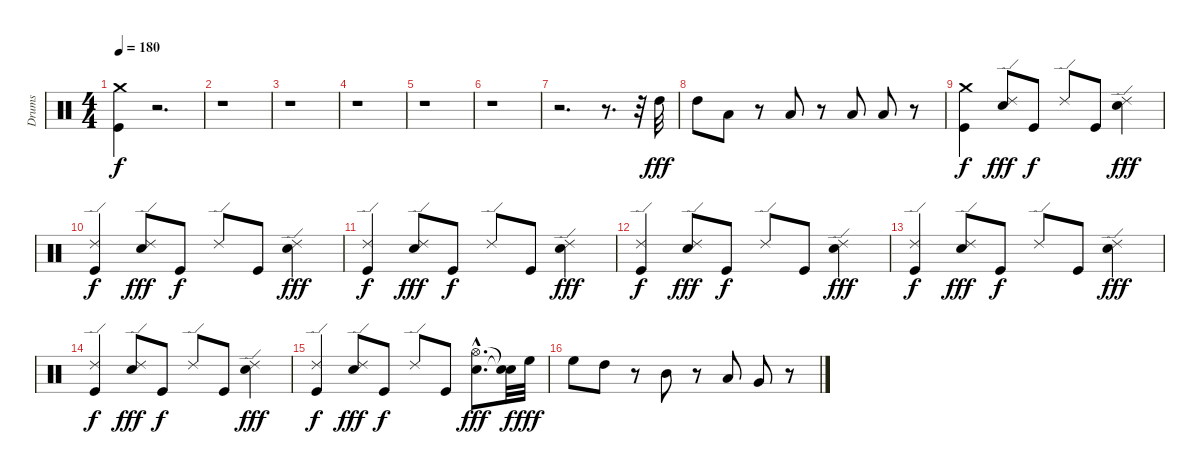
\track ("Drums" "Drums") {instrument percussion}
\staff {score}
\articulation defaults
\ts (4 4)
\tempo 180
\clef neutral
\ks c
("Crash medium (hit)" "Kick (hit)").4{dy f} r.2{d} |
r.1 |
r.1 |
r.1 |
r.1 |
r.1 |
r.2{d} r.8{d} r.32 "High Tom (hit)".32{dy fff} |
"High Tom (hit)".8 "Low Tom (hit)".8 r.8 "Low Tom (hit)".8 r.8 "Low Tom (hit)".8 "Low Tom (hit)".8 r.8 |
("Crash medium (hit)" "Kick (hit)").4{dy f} ("Ride (edge) 2" "Snare (hit) 2").8{dy fff} "Kick (hit)".8{dy f} "Ride (edge) 2".8 "Kick (hit)".8 ("Snare (hit) 2" "Ride (edge) 2").4{dy fff} |
("Ride (edge) 2" "Kick (hit)").4{dy f} ("Ride (edge) 2" "Snare (hit) 2").8{dy fff} "Kick (hit)".8{dy f} "Ride (edge) 2".8 "Kick (hit)".8 ("Snare (hit) 2" "Ride (edge) 2").4{dy fff} |
("Ride (edge) 2" "Kick (hit)").4{dy f} ("Ride (edge) 2" "Snare (hit) 2").8{dy fff} "Kick (hit)".8{dy f} "Ride (edge) 2".8 "Kick (hit)".8 ("Snare (hit) 2" "Ride (edge) 2").4{dy fff} |
("Ride (edge) 2" "Kick (hit)").4{dy f} ("Ride (edge) 2" "Snare (hit) 2").8{dy fff} "Kick (hit)".8{dy f} "Ride (edge) 2".8 "Kick (hit)".8 ("Snare (hit) 2" "Ride (edge) 2").4{dy fff} |
("Ride (edge) 2" "Kick (hit)").4{dy f} ("Ride (edge) 2" "Snare (hit) 2").8{dy fff} "Kick (hit)".8{dy f} "Ride (edge) 2".8 "Kick (hit)".8 ("Snare (hit) 2" "Ride (edge) 2").4{dy fff} |
("Ride (edge) 2" "Kick (hit)").4{dy f} ("Ride (edge) 2" "Snare (hit) 2").8{dy fff} "Kick (hit)".8{dy f} "Ride (edge) 2".8 "Kick (hit)".8 ("Snare (hit) 2" "Ride (edge) 2").4{dy fff} |
("Ride (edge) 2" "Kick (hit)").4{dy f} ("Ride (edge) 2" "Snare (hit) 2").8{dy fff} "Kick (hit)".8{dy f} "Ride (edge) 2".8 "Kick (hit)".8 ("Snare (hit) 2"{hac} "Hi-Hat (open)"{hac}).8{d dy fff} ("Snare (hit)"{t} "Snare (hit)"{t}).32{dy f} "High Floor Tom (hit)".32{dy fff} |
"High Floor Tom (hit)".8 "High Tom (hit)".8 r.8 "Mid Tom (hit)".8 r.8 "Low Tom (hit)".8 "Very Low Tom (hit)".8 r.8
